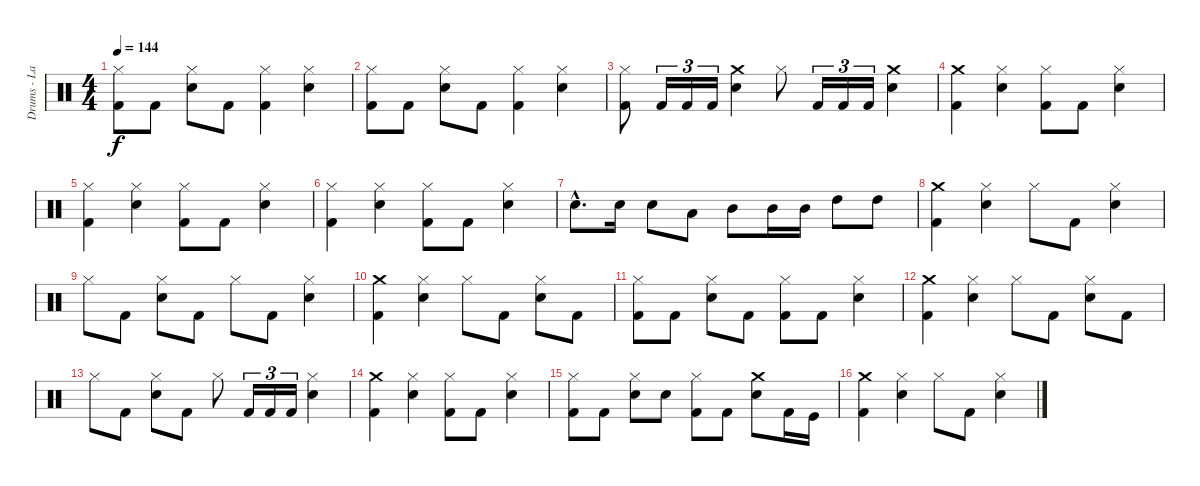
\track ("Drums - Lars" "Drums - La") {instrument percussion}
\staff {score}
\articulation defaults
\ts (4 4)
\tempo 144
\clef neutral
\ks c
("Kick (hit) 2" "Hi-Hat (closed)").8{dy f} "Kick (hit) 2".8 ("Snare (hit) 2" "Hi-Hat (closed)").8 "Kick (hit) 2".8 ("Kick (hit) 2" "Hi-Hat (closed)").4 ("Snare (hit) 2" "Hi-Hat (closed)").4 |
("Kick (hit) 2" "Hi-Hat (closed)").8 "Kick (hit) 2".8 ("Snare (hit) 2" "Hi-Hat (closed)").8 "Kick (hit) 2".8 ("Kick (hit) 2" "Hi-Hat (closed)").4 ("Snare (hit) 2" "Hi-Hat (closed)").4 |
("Kick (hit) 2" "Hi-Hat (closed)").8 "Kick (hit) 2".16{tu (3 2)} "Kick (hit) 2".16{tu (3 2)} "Kick (hit) 2".16{tu (3 2)} ("Snare (hit) 2" "Crash medium (hit)").4 "Hi-Hat (closed)".8 "Kick (hit) 2".16{tu (3 2)} "Kick (hit) 2".16{tu (3 2)} "Kick (hit) 2".16{tu (3 2)} ("Snare (hit) 2" "Crash medium (hit)").4 |
("Kick (hit) 2" "Crash medium (hit)").4 ("Snare (hit) 2" "Hi-Hat (closed)").4 ("Kick (hit) 2" "Hi-Hat (closed)").8 "Kick (hit) 2".8 ("Snare (hit) 2" "Hi-Hat (closed)").4 |
("Kick (hit) 2" "Hi-Hat (closed)").4 ("Snare (hit) 2" "Hi-Hat (closed)").4 ("Hi-Hat (closed)" "Kick (hit) 2").8 "Kick (hit) 2".8 ("Snare (hit) 2" "Hi-Hat (closed)").4 |
("Kick (hit) 2" "Hi-Hat (closed)").4 ("Snare (hit) 2" "Hi-Hat (closed)").4 ("Hi-Hat (closed)" "Kick (hit) 2").8 "Kick (hit) 2".8 ("Snare (hit) 2" "Hi-Hat (closed)").4 |
"Snare (hit) 2"{hac}.8{d} "Snare (hit) 2".16 "Snare (hit) 2".8 "Low Tom (hit)".8 "Mid Tom (hit)".8 "Mid Tom (hit)".16 "Mid Tom (hit)".16 "High Tom (hit)".8 "High Tom (hit)".8 |
("Crash medium (hit)" "Kick (hit) 2").4 ("Snare (hit) 2" "Hi-Hat (closed)").4 "Hi-Hat (closed)".8 "Kick (hit) 2".8 ("Snare (hit) 2" "Hi-Hat (closed)").4 |
"Hi-Hat (closed)".8 "Kick (hit) 2".8 ("Snare (hit) 2" "Hi-Hat (closed)").8 "Kick (hit) 2".8 "Hi-Hat (closed)".8 "Kick (hit) 2".8 ("Snare (hit) 2" "Hi-Hat (closed)").4 |
("Kick (hit) 2" "Crash medium (hit)").4 ("Snare (hit) 2" "Hi-Hat (closed)").4 "Hi-Hat (closed)".8 "Kick (hit) 2".8 ("Snare (hit) 2" "Hi-Hat (closed)").8 "Kick (hit) 2".8 |
("Kick (hit) 2" "Hi-Hat (closed)").8 "Kick (hit) 2".8 ("Snare (hit) 2" "Hi-Hat (closed)").8 "Kick (hit) 2".8 ("Kick (hit) 2" "Hi-Hat (closed)").8 "Kick (hit) 2".8 ("Snare (hit) 2" "Hi-Hat (closed)").4 |
("Crash medium (hit)" "Kick (hit) 2").4 ("Snare (hit) 2" "Hi-Hat (closed)").4 "Hi-Hat (closed)".8 "Kick (hit) 2".8 ("Snare (hit) 2" "Hi-Hat (closed)").8 "Kick (hit) 2".8 |
"Hi-Hat (closed)".8 "Kick (hit) 2".8 ("Snare (hit) 2" "Hi-Hat (closed)").8 "Kick (hit) 2".8 "Hi-Hat (closed)".8 "Kick (hit) 2".16{tu (3 2)} "Kick (hit) 2".16{tu (3 2)} "Kick (hit) 2".16{tu (3 2)} ("Snare (hit) 2" "Hi-Hat (closed)").4 |
("Kick (hit) 2" "Crash medium (hit)").4 ("Snare (hit) 2" "Hi-Hat (closed)").4 ("Kick (hit) 2" "Hi-Hat (closed)").8 "Kick (hit) 2".8 ("Snare (hit) 2" "Hi-Hat (closed)").4 |
("Hi-Hat (closed)" "Kick (hit) 2").8 "Kick (hit) 2".8 ("Snare (hit) 2" "Hi-Hat (closed)").8 "Snare (hit) 2".8 ("Hi-Hat (closed)" "Kick (hit) 2").8 "Kick (hit) 2".8 ("Crash medium (hit)" "Snare (hit) 2").8 "Kick (hit) 2".16 "Kick (hit)".16 |
("Kick (hit) 2" "Crash medium (hit)").4 ("Hi-Hat (closed)" "Snare (hit) 2").4 "Hi-Hat (closed)".8 "Kick (hit) 2".8 ("Snare (hit) 2" "Hi-Hat (closed)").4
